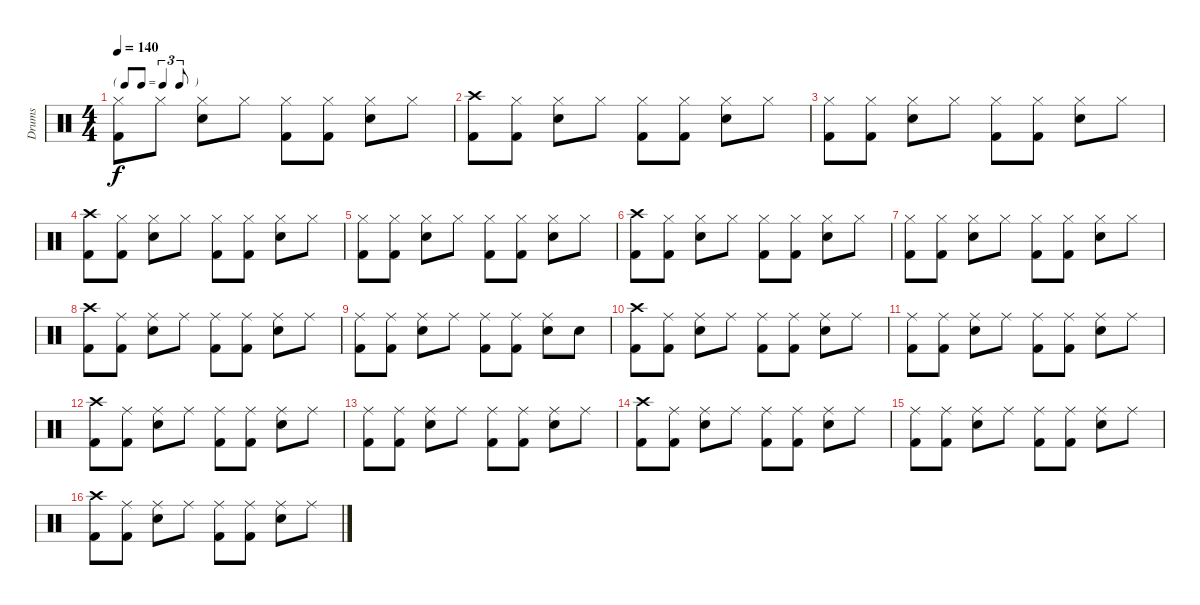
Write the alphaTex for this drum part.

\track ("Drums" "Drums") {instrument percussion}
\staff {score}
\articulation defaults
\ts (4 4)
\tf triplet8th
\tempo 140
\clef neutral
\ks c
("Hi-Hat (closed)" "Kick (hit) 2").8{dy f} "Hi-Hat (closed)".8 ("Hi-Hat (closed)" "Electric Snare (hit)").8 "Hi-Hat (closed)".8 ("Hi-Hat (closed)" "Kick (hit) 2").8 ("Hi-Hat (closed)" "Kick (hit) 2").8 ("Hi-Hat (closed)" "Electric Snare (hit)").8 "Hi-Hat (closed)".8 |
("Crash high (hit)" "Kick (hit) 2").8 ("Hi-Hat (closed)" "Kick (hit) 2").8 ("Hi-Hat (closed)" "Electric Snare (hit)").8 "Hi-Hat (closed)".8 ("Hi-Hat (closed)" "Kick (hit) 2").8 ("Hi-Hat (closed)" "Kick (hit) 2").8 ("Hi-Hat (closed)" "Electric Snare (hit)").8 "Hi-Hat (closed)".8 |
("Hi-Hat (closed)" "Kick (hit) 2").8 ("Hi-Hat (closed)" "Kick (hit) 2").8 ("Hi-Hat (closed)" "Electric Snare (hit)").8 "Hi-Hat (closed)".8 ("Hi-Hat (closed)" "Kick (hit) 2").8 ("Hi-Hat (closed)" "Kick (hit) 2").8 ("Hi-Hat (closed)" "Electric Snare (hit)").8 "Hi-Hat (closed)".8 |
("Crash high (hit)" "Kick (hit) 2").8 ("Hi-Hat (closed)" "Kick (hit) 2").8 ("Hi-Hat (closed)" "Electric Snare (hit)").8 "Hi-Hat (closed)".8 ("Hi-Hat (closed)" "Kick (hit) 2").8 ("Hi-Hat (closed)" "Kick (hit) 2").8 ("Hi-Hat (closed)" "Electric Snare (hit)").8 "Hi-Hat (closed)".8 |
("Hi-Hat (closed)" "Kick (hit) 2").8 ("Hi-Hat (closed)" "Kick (hit) 2").8 ("Hi-Hat (closed)" "Electric Snare (hit)").8 "Hi-Hat (closed)".8 ("Hi-Hat (closed)" "Kick (hit) 2").8 ("Hi-Hat (closed)" "Kick (hit) 2").8 ("Hi-Hat (closed)" "Electric Snare (hit)").8 "Hi-Hat (closed)".8 |
("Crash high (hit)" "Kick (hit) 2").8 ("Hi-Hat (closed)" "Kick (hit) 2").8 ("Hi-Hat (closed)" "Electric Snare (hit)").8 "Hi-Hat (closed)".8 ("Hi-Hat (closed)" "Kick (hit) 2").8 ("Hi-Hat (closed)" "Kick (hit) 2").8 ("Hi-Hat (closed)" "Electric Snare (hit)").8 "Hi-Hat (closed)".8 |
("Hi-Hat (closed)" "Kick (hit) 2").8 ("Hi-Hat (closed)" "Kick (hit) 2").8 ("Hi-Hat (closed)" "Electric Snare (hit)").8 "Hi-Hat (closed)".8 ("Hi-Hat (closed)" "Kick (hit) 2").8 ("Hi-Hat (closed)" "Kick (hit) 2").8 ("Hi-Hat (closed)" "Electric Snare (hit)").8 "Hi-Hat (closed)".8 |
("Crash high (hit)" "Kick (hit) 2").8 ("Ride (middle)" "Kick (hit) 2").8 ("Ride (middle)" "Electric Snare (hit)").8 "Ride (middle)".8 ("Ride (middle)" "Kick (hit) 2").8 ("Ride (middle)" "Kick (hit) 2").8 ("Ride (middle)" "Electric Snare (hit)").8 "Ride (middle)".8 |
("Ride (middle)" "Kick (hit) 2").8 ("Ride (middle)" "Kick (hit) 2").8 ("Ride (middle)" "Electric Snare (hit)").8 "Ride (middle)".8 ("Ride (middle)" "Kick (hit) 2").8 ("Ride (middle)" "Kick (hit) 2").8 ("Ride (middle)" "Electric Snare (hit)").8 "Snare (hit)".8 |
("Crash high (hit)" "Kick (hit) 2").8 ("Ride (middle)" "Kick (hit) 2").8 ("Ride (middle)" "Electric Snare (hit)").8 "Ride (middle)".8 ("Ride (middle)" "Kick (hit) 2").8 ("Ride (middle)" "Kick (hit) 2").8 ("Ride (middle)" "Electric Snare (hit)").8 "Ride (middle)".8 |
("Ride (middle)" "Kick (hit) 2").8 ("Ride (middle)" "Kick (hit) 2").8 ("Ride (middle)" "Electric Snare (hit)").8 "Ride (middle)".8 ("Ride (middle)" "Kick (hit) 2").8 ("Ride (middle)" "Kick (hit) 2").8 ("Ride (middle)" "Electric Snare (hit)").8 "Ride (middle)".8 |
("Crash high (hit)" "Kick (hit) 2").8 ("Ride (middle)" "Kick (hit) 2").8 ("Ride (middle)" "Electric Snare (hit)").8 "Ride (middle)".8 ("Ride (middle)" "Kick (hit) 2").8 ("Ride (middle)" "Kick (hit) 2").8 ("Ride (middle)" "Electric Snare (hit)").8 "Ride (middle)".8 |
("Ride (middle)" "Kick (hit) 2").8 ("Ride (middle)" "Kick (hit) 2").8 ("Ride (middle)" "Electric Snare (hit)").8 "Ride (middle)".8 ("Ride (middle)" "Kick (hit) 2").8 ("Ride (middle)" "Kick (hit) 2").8 ("Ride (middle)" "Electric Snare (hit)").8 "Ride (middle)".8 |
("Crash high (hit)" "Kick (hit) 2").8 ("Ride (middle)" "Kick (hit) 2").8 ("Ride (middle)" "Electric Snare (hit)").8 "Ride (middle)".8 ("Ride (middle)" "Kick (hit) 2").8 ("Ride (middle)" "Kick (hit) 2").8 ("Ride (middle)" "Electric Snare (hit)").8 "Ride (middle)".8 |
("Ride (middle)" "Kick (hit) 2").8 ("Ride (middle)" "Kick (hit) 2").8 ("Ride (middle)" "Electric Snare (hit)").8 "Ride (middle)".8 ("Ride (middle)" "Kick (hit) 2").8 ("Ride (middle)" "Kick (hit) 2").8 ("Ride (middle)" "Electric Snare (hit)").8 "Ride (middle)".8 |
("Crash high (hit)" "Kick (hit) 2").8 ("Ride (middle)" "Kick (hit) 2").8 ("Ride (middle)" "Electric Snare (hit)").8 "Ride (middle)".8 ("Ride (middle)" "Kick (hit) 2").8 ("Ride (middle)" "Kick (hit) 2").8 ("Ride (middle)" "Electric Snare (hit)").8 "Ride (middle)".8
